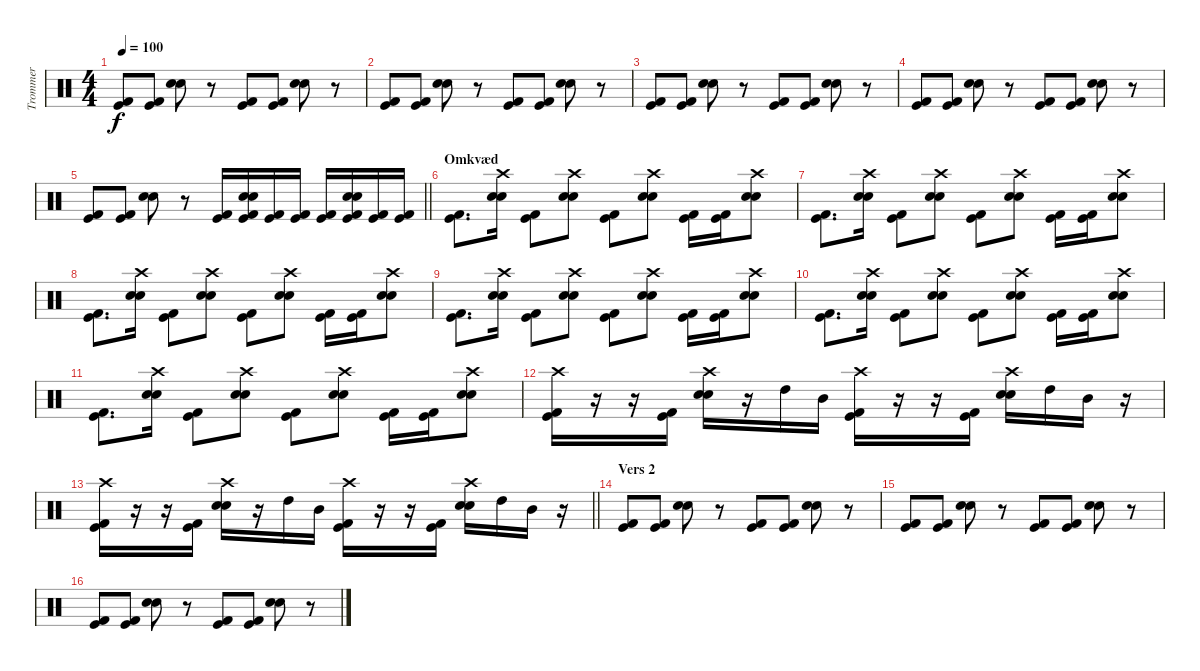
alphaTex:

\track ("Trommer" "Trommer") {instrument percussion}
\staff {score}
\articulation defaults
\ts (4 4)
\tempo 100
\clef neutral
\ks c
("Kick (hit)" "Kick (hit) 2").8{dy f} ("Kick (hit)" "Kick (hit) 2").8 ("Snare (hit) 2" "Electric Snare (hit)").8 r.8 ("Kick (hit)" "Kick (hit) 2").8 ("Kick (hit)" "Kick (hit) 2").8 ("Snare (hit) 2" "Electric Snare (hit)").8 r.8 |
("Kick (hit)" "Kick (hit) 2").8 ("Kick (hit)" "Kick (hit) 2").8 ("Snare (hit) 2" "Electric Snare (hit)").8 r.8 ("Kick (hit)" "Kick (hit) 2").8 ("Kick (hit)" "Kick (hit) 2").8 ("Snare (hit) 2" "Electric Snare (hit)").8 r.8 |
("Kick (hit)" "Kick (hit) 2").8 ("Kick (hit)" "Kick (hit) 2").8 ("Snare (hit) 2" "Electric Snare (hit)").8 r.8 ("Kick (hit)" "Kick (hit) 2").8 ("Kick (hit)" "Kick (hit) 2").8 ("Snare (hit) 2" "Electric Snare (hit)").8 r.8 |
("Kick (hit)" "Kick (hit) 2").8 ("Kick (hit)" "Kick (hit) 2").8 ("Snare (hit) 2" "Electric Snare (hit)").8 r.8 ("Kick (hit)" "Kick (hit) 2").8 ("Kick (hit)" "Kick (hit) 2").8 ("Snare (hit) 2" "Electric Snare (hit)").8 r.8 |
\barLineRight lightlight
("Kick (hit)" "Kick (hit) 2").8 ("Kick (hit)" "Kick (hit) 2").8 ("Snare (hit) 2" "Electric Snare (hit)").8 r.8 ("Kick (hit)" "Kick (hit) 2").16 ("Kick (hit)" "Snare (hit) 2" "Electric Snare (hit)" "Kick (hit) 2").16 ("Kick (hit)" "Kick (hit) 2").16 ("Kick (hit)" "Kick (hit) 2").16 ("Kick (hit)" "Kick (hit) 2").16 ("Kick (hit)" "Snare (hit) 2" "Electric Snare (hit)" "Kick (hit) 2").16 ("Kick (hit)" "Kick (hit) 2").16 ("Kick (hit)" "Kick (hit) 2").16 |
\section ("" "Omkvæd")
("Kick (hit)" "Kick (hit) 2").8{d} ("Crash high (hit)" "Snare (hit) 2" "Electric Snare (hit)").16 ("Kick (hit)" "Kick (hit) 2").8 ("Crash high (hit)" "Snare (hit) 2" "Electric Snare (hit)").8 ("Kick (hit)" "Kick (hit) 2").8 ("Crash high (hit)" "Electric Snare (hit)" "Snare (hit) 2").8 ("Kick (hit)" "Kick (hit) 2").16 ("Kick (hit)" "Kick (hit) 2").16 ("Crash high (hit)" "Snare (hit) 2" "Electric Snare (hit)").8 |
("Kick (hit)" "Kick (hit) 2").8{d} ("Crash high (hit)" "Snare (hit) 2" "Electric Snare (hit)").16 ("Kick (hit)" "Kick (hit) 2").8 ("Crash high (hit)" "Snare (hit) 2" "Electric Snare (hit)").8 ("Kick (hit)" "Kick (hit) 2").8 ("Crash high (hit)" "Electric Snare (hit)" "Snare (hit) 2").8 ("Kick (hit)" "Kick (hit) 2").16 ("Kick (hit)" "Kick (hit) 2").16 ("Crash high (hit)" "Snare (hit) 2" "Electric Snare (hit)").8 |
("Kick (hit)" "Kick (hit) 2").8{d} ("Crash high (hit)" "Snare (hit) 2" "Electric Snare (hit)").16 ("Kick (hit)" "Kick (hit) 2").8 ("Crash high (hit)" "Snare (hit) 2" "Electric Snare (hit)").8 ("Kick (hit)" "Kick (hit) 2").8 ("Crash high (hit)" "Electric Snare (hit)" "Snare (hit) 2").8 ("Kick (hit)" "Kick (hit) 2").16 ("Kick (hit)" "Kick (hit) 2").16 ("Crash high (hit)" "Snare (hit) 2" "Electric Snare (hit)").8 |
("Kick (hit)" "Kick (hit) 2").8{d} ("Crash high (hit)" "Snare (hit) 2" "Electric Snare (hit)").16 ("Kick (hit)" "Kick (hit) 2").8 ("Crash high (hit)" "Snare (hit) 2" "Electric Snare (hit)").8 ("Kick (hit)" "Kick (hit) 2").8 ("Crash high (hit)" "Electric Snare (hit)" "Snare (hit) 2").8 ("Kick (hit)" "Kick (hit) 2").16 ("Kick (hit)" "Kick (hit) 2").16 ("Crash high (hit)" "Snare (hit) 2" "Electric Snare (hit)").8 |
("Kick (hit)" "Kick (hit) 2").8{d} ("Crash high (hit)" "Snare (hit) 2" "Electric Snare (hit)").16 ("Kick (hit)" "Kick (hit) 2").8 ("Crash high (hit)" "Snare (hit) 2" "Electric Snare (hit)").8 ("Kick (hit)" "Kick (hit) 2").8 ("Crash high (hit)" "Electric Snare (hit)" "Snare (hit) 2").8 ("Kick (hit)" "Kick (hit) 2").16 ("Kick (hit)" "Kick (hit) 2").16 ("Crash high (hit)" "Snare (hit) 2" "Electric Snare (hit)").8 |
("Kick (hit)" "Kick (hit) 2").8{d} ("Crash high (hit)" "Snare (hit) 2" "Electric Snare (hit)").16 ("Kick (hit)" "Kick (hit) 2").8 ("Crash high (hit)" "Snare (hit) 2" "Electric Snare (hit)").8 ("Kick (hit)" "Kick (hit) 2").8 ("Crash high (hit)" "Electric Snare (hit)" "Snare (hit) 2").8 ("Kick (hit)" "Kick (hit) 2").16 ("Kick (hit)" "Kick (hit) 2").16 ("Crash high (hit)" "Snare (hit) 2" "Electric Snare (hit)").8 |
("Crash high (hit)" "Kick (hit)" "Kick (hit) 2").16 r.16 r.16 ("Kick (hit)" "Kick (hit) 2").16 ("Crash high (hit)" "Snare (hit) 2" "Electric Snare (hit)").16 r.16 "High Tom (hit)".16 "Mid Tom (hit)".16 ("Crash high (hit)" "Kick (hit)" "Kick (hit) 2").16 r.16 r.16 ("Kick (hit)" "Kick (hit) 2").16 ("Crash high (hit)" "Snare (hit) 2" "Electric Snare (hit)").16 "High Tom (hit)".16 "Mid Tom (hit)".16 r.16 |
\barLineRight lightlight
("Crash high (hit)" "Kick (hit)" "Kick (hit) 2").16 r.16 r.16 ("Kick (hit)" "Kick (hit) 2").16 ("Crash high (hit)" "Snare (hit) 2" "Electric Snare (hit)").16 r.16 "High Tom (hit)".16 "Mid Tom (hit)".16 ("Crash high (hit)" "Kick (hit)" "Kick (hit) 2").16 r.16 r.16 ("Kick (hit)" "Kick (hit) 2").16 ("Crash high (hit)" "Snare (hit) 2" "Electric Snare (hit)").16 "High Tom (hit)".16 "Mid Tom (hit)".16 r.16 |
\section ("" "Vers 2")
("Kick (hit)" "Kick (hit) 2").8 ("Kick (hit)" "Kick (hit) 2").8 ("Snare (hit) 2" "Electric Snare (hit)").8 r.8 ("Kick (hit)" "Kick (hit) 2").8 ("Kick (hit)" "Kick (hit) 2").8 ("Snare (hit) 2" "Electric Snare (hit)").8 r.8 |
("Kick (hit)" "Kick (hit) 2").8 ("Kick (hit)" "Kick (hit) 2").8 ("Snare (hit) 2" "Electric Snare (hit)").8 r.8 ("Kick (hit)" "Kick (hit) 2").8 ("Kick (hit)" "Kick (hit) 2").8 ("Snare (hit) 2" "Electric Snare (hit)").8 r.8 |
("Kick (hit)" "Kick (hit) 2").8 ("Kick (hit)" "Kick (hit) 2").8 ("Snare (hit) 2" "Electric Snare (hit)").8 r.8 ("Kick (hit)" "Kick (hit) 2").8 ("Kick (hit)" "Kick (hit) 2").8 ("Snare (hit) 2" "Electric Snare (hit)").8 r.8
